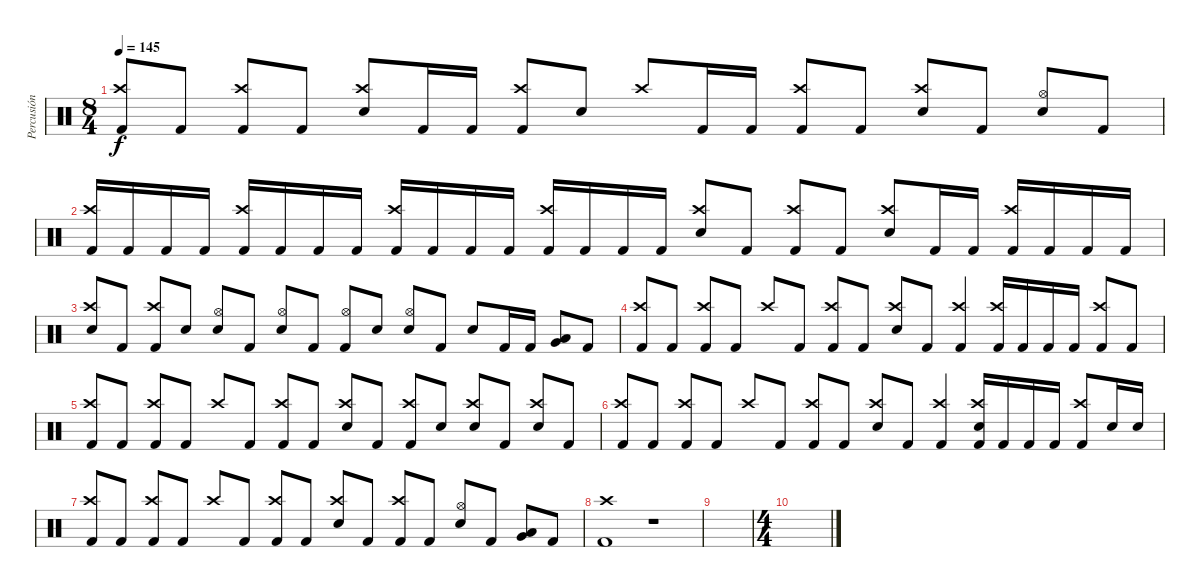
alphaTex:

\track ("Percusión" "Percusión") {instrument percussion}
\staff {score}
\articulation defaults
\ts (8 4)
\tempo 145
\clef neutral
\ks c
("Crash high (hit)" "Kick (hit) 2").8{dy f beam Up} "Kick (hit) 2".8{beam Up} ("Crash high (hit)" "Kick (hit) 2").8{beam Up} "Kick (hit) 2".8{beam Up} ("Crash high (hit)" "Electric Snare (hit)").8{beam Up} "Kick (hit) 2".16{beam Up} "Kick (hit) 2".16{beam Up} ("Crash high (hit)" "Kick (hit) 2").8{beam Up} "Electric Snare (hit)".8{beam Up} "Crash high (hit)".8{beam Up} "Kick (hit) 2".16{beam Up} "Kick (hit) 2".16{beam Up} ("Crash high (hit)" "Kick (hit) 2").8{beam Up} "Kick (hit) 2".8{beam Up} ("Crash high (hit)" "Electric Snare (hit)").8{beam Up} "Kick (hit) 2".8{beam Up} ("Hi-Hat (open)" "Electric Snare (hit)").8{beam Up} "Kick (hit) 2".8{beam Up} |
("Crash high (hit)" "Kick (hit) 2").16{beam Up} "Kick (hit) 2".16{beam Up} "Kick (hit) 2".16{beam Up} "Kick (hit) 2".16{beam Up} ("Crash high (hit)" "Kick (hit) 2").16{beam Up} "Kick (hit) 2".16{beam Up} "Kick (hit) 2".16{beam Up} "Kick (hit) 2".16{beam Up} ("Crash high (hit)" "Kick (hit) 2").16{beam Up} "Kick (hit) 2".16{beam Up} "Kick (hit) 2".16{beam Up} "Kick (hit) 2".16{beam Up} ("Crash high (hit)" "Kick (hit) 2").16{beam Up} "Kick (hit) 2".16{beam Up} "Kick (hit) 2".16{beam Up} "Kick (hit) 2".16{beam Up} ("Crash high (hit)" "Electric Snare (hit)").8{beam Up} "Kick (hit) 2".8{beam Up} ("Crash high (hit)" "Kick (hit) 2").8{beam Up} "Kick (hit) 2".8{beam Up} ("Crash high (hit)" "Electric Snare (hit)").8{beam Up} "Kick (hit) 2".16{beam Up} "Kick (hit) 2".16{beam Up} ("Crash high (hit)" "Kick (hit) 2").16{beam Up} "Kick (hit) 2".16{beam Up} "Kick (hit) 2".16{beam Up} "Kick (hit) 2".16{beam Up} |
("Crash high (hit)" "Electric Snare (hit)").8{beam Up} "Kick (hit) 2".8{beam Up} ("Crash high (hit)" "Kick (hit) 2").8{beam Up} "Electric Snare (hit)".8{beam Up} ("Hi-Hat (open)" "Electric Snare (hit)").8{beam Up} "Kick (hit) 2".8{beam Up} ("Hi-Hat (open)" "Electric Snare (hit)").8{beam Up} "Kick (hit) 2".8{beam Up} ("Hi-Hat (open)" "Kick (hit) 2").8{beam Up} "Electric Snare (hit)".8{beam Up} ("Hi-Hat (open)" "Electric Snare (hit)").8{beam Up} "Kick (hit) 2".8{beam Up} "Electric Snare (hit)".8 "Kick (hit) 2".16 "Kick (hit) 2".16 ("Low Tom (hit)" "Very Low Tom (hit)").8 "Kick (hit) 2".8 |
("Crash high (hit)" "Kick (hit) 2").8{beam Up} "Kick (hit) 2".8{beam Up} ("Crash high (hit)" "Kick (hit) 2").8{beam Up} "Kick (hit) 2".8{beam Up} "Crash high (hit)".8{beam Up} "Kick (hit) 2".8{beam Up} ("Crash high (hit)" "Kick (hit) 2").8{beam Up} "Kick (hit) 2".8{beam Up} ("Crash high (hit)" "Electric Snare (hit)").8{beam Up} "Kick (hit) 2".8{beam Up} ("Crash high (hit)" "Kick (hit) 2").4{beam Up} ("Crash high (hit)" "Kick (hit) 2").16{beam Up} "Kick (hit) 2".16{beam Up} "Kick (hit) 2".16{beam Up} "Kick (hit) 2".16{beam Up} ("Crash high (hit)" "Kick (hit) 2").8{beam Up} "Kick (hit) 2".8{beam Up} |
("Crash high (hit)" "Kick (hit) 2").8{beam Up} "Kick (hit) 2".8{beam Up} ("Crash high (hit)" "Kick (hit) 2").8{beam Up} "Kick (hit) 2".8{beam Up} "Crash high (hit)".8{beam Up} "Kick (hit) 2".8{beam Up} ("Crash high (hit)" "Kick (hit) 2").8{beam Up} "Kick (hit) 2".8{beam Up} ("Crash high (hit)" "Electric Snare (hit)").8{beam Up} "Kick (hit) 2".8{beam Up} ("Crash high (hit)" "Kick (hit) 2").8{beam Up} "Electric Snare (hit)".8{beam Up} ("Crash high (hit)" "Electric Snare (hit)").8{beam Up} "Kick (hit) 2".8{beam Up} ("Crash high (hit)" "Electric Snare (hit)").8{beam Up} "Kick (hit) 2".8{beam Up} |
("Crash high (hit)" "Kick (hit) 2").8{beam Up} "Kick (hit) 2".8{beam Up} ("Crash high (hit)" "Kick (hit) 2").8{beam Up} "Kick (hit) 2".8{beam Up} "Crash high (hit)".8{beam Up} "Kick (hit) 2".8{beam Up} ("Crash high (hit)" "Kick (hit) 2").8{beam Up} "Kick (hit) 2".8{beam Up} ("Crash high (hit)" "Electric Snare (hit)").8{beam Up} "Kick (hit) 2".8{beam Up} ("Crash high (hit)" "Kick (hit) 2").4{beam Up} ("Electric Snare (hit)" "Crash high (hit)" "Kick (hit) 2").16{beam Up} "Kick (hit) 2".16{beam Up} "Kick (hit) 2".16{beam Up} "Kick (hit) 2".16{beam Up} ("Crash high (hit)" "Kick (hit) 2").8{beam Up} "Electric Snare (hit)".16{beam Up} "Electric Snare (hit)".16{beam Up} |
("Crash high (hit)" "Kick (hit) 2").8{beam Up} "Kick (hit) 2".8{beam Up} ("Crash high (hit)" "Kick (hit) 2").8{beam Up} "Kick (hit) 2".8{beam Up} "Crash high (hit)".8{beam Up} "Kick (hit) 2".8{beam Up} ("Crash high (hit)" "Kick (hit) 2").8{beam Up} "Kick (hit) 2".8{beam Up} ("Crash high (hit)" "Electric Snare (hit)").8{beam Up} "Kick (hit) 2".8{beam Up} ("Crash high (hit)" "Kick (hit) 2").8{beam Up} "Kick (hit) 2".8{beam Up} ("Hi-Hat (open)" "Electric Snare (hit)").8{beam Up} "Kick (hit) 2".8{beam Up} ("Low Tom (hit)" "Very Low Tom (hit)").8 "Kick (hit) 2".8 |
("Crash high (hit)" "Kick (hit) 2").1{beam Up} r.1 |
|
\ts (4 4)
